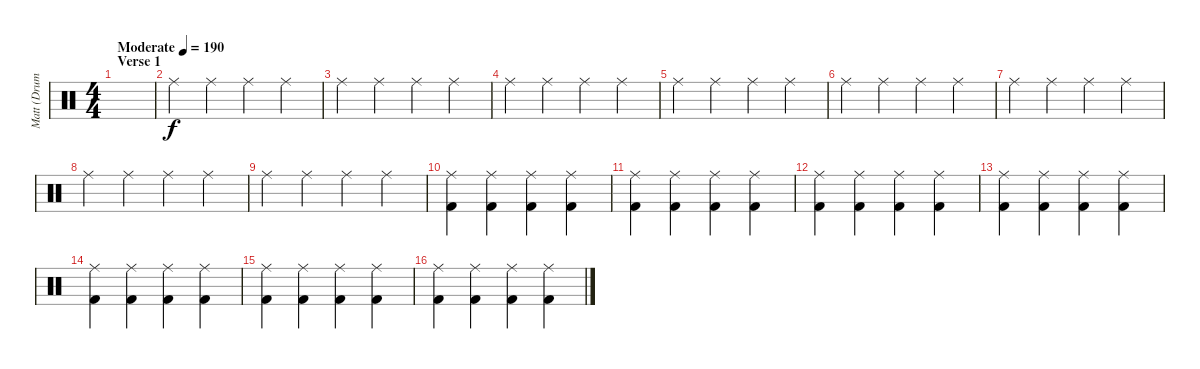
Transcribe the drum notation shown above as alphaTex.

\track ("Matt (Drums)" "Matt (Drum") {instrument percussion}
\staff {score}
\articulation defaults
\ts (4 4)
\section ("" "Verse 1")
\tempo (190 "Moderate")
\clef neutral
\ks c
|
"Ride (middle)".4 "Ride (middle)".4 "Ride (middle)".4 "Ride (middle)".4 |
"Ride (middle)".4 "Ride (middle)".4 "Ride (middle)".4 "Ride (middle)".4 |
"Ride (middle)".4 "Ride (middle)".4 "Ride (middle)".4 "Ride (middle)".4 |
"Ride (middle)".4 "Ride (middle)".4 "Ride (middle)".4 "Ride (middle)".4 |
"Ride (middle)".4 "Ride (middle)".4 "Ride (middle)".4 "Ride (middle)".4 |
"Ride (middle)".4 "Ride (middle)".4 "Ride (middle)".4 "Ride (middle)".4 |
"Ride (middle)".4 "Ride (middle)".4 "Ride (middle)".4 "Ride (middle)".4 |
"Ride (middle)".4 "Ride (middle)".4 "Ride (middle)".4 "Ride (middle)".4 |
("Ride (middle)" "Kick (hit) 2").4 ("Ride (middle)" "Kick (hit) 2").4 ("Ride (middle)" "Kick (hit) 2").4 ("Ride (middle)" "Kick (hit) 2").4 |
("Ride (middle)" "Kick (hit) 2").4 ("Ride (middle)" "Kick (hit) 2").4 ("Ride (middle)" "Kick (hit) 2").4 ("Ride (middle)" "Kick (hit) 2").4 |
("Ride (middle)" "Kick (hit) 2").4 ("Ride (middle)" "Kick (hit) 2").4 ("Ride (middle)" "Kick (hit) 2").4 ("Ride (middle)" "Kick (hit) 2").4 |
("Ride (middle)" "Kick (hit) 2").4 ("Ride (middle)" "Kick (hit) 2").4 ("Ride (middle)" "Kick (hit) 2").4 ("Ride (middle)" "Kick (hit) 2").4 |
("Ride (middle)" "Kick (hit) 2").4 ("Ride (middle)" "Kick (hit) 2").4 ("Ride (middle)" "Kick (hit) 2").4 ("Ride (middle)" "Kick (hit) 2").4 |
("Ride (middle)" "Kick (hit) 2").4 ("Ride (middle)" "Kick (hit) 2").4 ("Ride (middle)" "Kick (hit) 2").4 ("Ride (middle)" "Kick (hit) 2").4 |
("Ride (middle)" "Kick (hit) 2").4 ("Ride (middle)" "Kick (hit) 2").4 ("Ride (middle)" "Kick (hit) 2").4 ("Ride (middle)" "Kick (hit) 2").4
